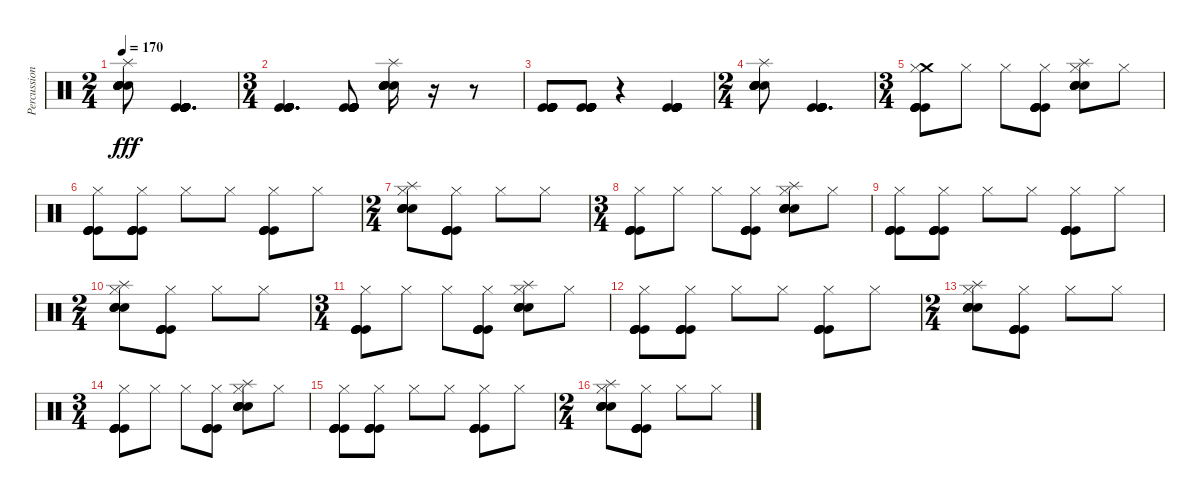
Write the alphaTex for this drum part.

\track ("Percussion" "Percussion") {instrument percussion}
\staff {score}
\articulation defaults
\ts (2 4)
\tempo 170
\clef neutral
\ks c
("Splash (hit)" "Hand Clap (hit)" "Hand Clap (hit)" "Hand Clap (hit)" "Hand Clap (hit)" "Hand Clap (hit)").8{dy fff} ("Kick (hit)" "Kick (hit)" "Kick (hit)" "Kick (hit)" "Kick (hit)" "Kick (hit)").4{d} |
\ts (3 4)
("Kick (hit)" "Kick (hit)" "Kick (hit)" "Kick (hit)" "Kick (hit)" "Kick (hit)").4{d} ("Kick (hit)" "Kick (hit)" "Kick (hit)" "Kick (hit)" "Kick (hit)" "Kick (hit)").8 ("Splash (hit)" "Hand Clap (hit)" "Hand Clap (hit)" "Hand Clap (hit)" "Hand Clap (hit)" "Hand Clap (hit)").16 r.16 r.8 |
("Kick (hit)" "Kick (hit)" "Kick (hit)" "Kick (hit)" "Kick (hit)" "Kick (hit)").8 ("Kick (hit)" "Kick (hit)" "Kick (hit)" "Kick (hit)" "Kick (hit)" "Kick (hit)").8 r.4 ("Kick (hit)" "Kick (hit)" "Kick (hit)" "Kick (hit)" "Kick (hit)" "Kick (hit)").4 |
\ts (2 4)
("Splash (hit)" "Hand Clap (hit)" "Hand Clap (hit)" "Hand Clap (hit)" "Hand Clap (hit)" "Hand Clap (hit)").8 ("Kick (hit)" "Kick (hit)" "Kick (hit)" "Kick (hit)" "Kick (hit)" "Kick (hit)").4{d} |
\ts (3 4)
("Crash medium (hit)" "Hi-Hat (closed)" "Kick (hit)" "Kick (hit)" "Kick (hit)" "Kick (hit)").8 "Hi-Hat (closed)".8 "Hi-Hat (closed)".8 ("Hi-Hat (closed)" "Kick (hit)" "Kick (hit)" "Kick (hit)" "Kick (hit)").8 ("Splash (hit)" "Hi-Hat (closed)" "Hand Clap (hit)" "Hand Clap (hit)" "Hand Clap (hit)" "Hand Clap (hit)").8 "Hi-Hat (closed)".8 |
("Hi-Hat (closed)" "Kick (hit)" "Kick (hit)" "Kick (hit)" "Kick (hit)").8 ("Hi-Hat (closed)" "Kick (hit)" "Kick (hit)" "Kick (hit)" "Kick (hit)").8 "Hi-Hat (closed)".8 "Hi-Hat (closed)".8 ("Hi-Hat (closed)" "Kick (hit)" "Kick (hit)" "Kick (hit)" "Kick (hit)").8 "Hi-Hat (closed)".8 |
\ts (2 4)
("Splash (hit)" "Hi-Hat (closed)" "Hand Clap (hit)" "Hand Clap (hit)" "Hand Clap (hit)" "Hand Clap (hit)").8 ("Hi-Hat (closed)" "Kick (hit)" "Kick (hit)" "Kick (hit)" "Kick (hit)").8 "Hi-Hat (closed)".8 "Hi-Hat (closed)".8 |
\ts (3 4)
("Hi-Hat (closed)" "Kick (hit)" "Kick (hit)" "Kick (hit)" "Kick (hit)").8 "Hi-Hat (closed)".8 "Hi-Hat (closed)".8 ("Hi-Hat (closed)" "Kick (hit)" "Kick (hit)" "Kick (hit)" "Kick (hit)").8 ("Splash (hit)" "Hi-Hat (closed)" "Hand Clap (hit)" "Hand Clap (hit)" "Hand Clap (hit)" "Hand Clap (hit)").8 "Hi-Hat (closed)".8 |
("Hi-Hat (closed)" "Kick (hit)" "Kick (hit)" "Kick (hit)" "Kick (hit)").8 ("Hi-Hat (closed)" "Kick (hit)" "Kick (hit)" "Kick (hit)" "Kick (hit)").8 "Hi-Hat (closed)".8 "Hi-Hat (closed)".8 ("Hi-Hat (closed)" "Kick (hit)" "Kick (hit)" "Kick (hit)" "Kick (hit)").8 "Hi-Hat (closed)".8 |
\ts (2 4)
("Splash (hit)" "Hi-Hat (closed)" "Hand Clap (hit)" "Hand Clap (hit)" "Hand Clap (hit)" "Hand Clap (hit)").8 ("Hi-Hat (closed)" "Kick (hit)" "Kick (hit)" "Kick (hit)" "Kick (hit)").8 "Hi-Hat (closed)".8 "Hi-Hat (closed)".8 |
\ts (3 4)
("Hi-Hat (closed)" "Kick (hit)" "Kick (hit)" "Kick (hit)" "Kick (hit)").8 "Hi-Hat (closed)".8 "Hi-Hat (closed)".8 ("Hi-Hat (closed)" "Kick (hit)" "Kick (hit)" "Kick (hit)" "Kick (hit)").8 ("Splash (hit)" "Hi-Hat (closed)" "Hand Clap (hit)" "Hand Clap (hit)" "Hand Clap (hit)" "Hand Clap (hit)").8 "Hi-Hat (closed)".8 |
("Hi-Hat (closed)" "Kick (hit)" "Kick (hit)" "Kick (hit)" "Kick (hit)").8 ("Hi-Hat (closed)" "Kick (hit)" "Kick (hit)" "Kick (hit)" "Kick (hit)").8 "Hi-Hat (closed)".8 "Hi-Hat (closed)".8 ("Hi-Hat (closed)" "Kick (hit)" "Kick (hit)" "Kick (hit)" "Kick (hit)").8 "Hi-Hat (closed)".8 |
\ts (2 4)
("Splash (hit)" "Hi-Hat (closed)" "Hand Clap (hit)" "Hand Clap (hit)" "Hand Clap (hit)" "Hand Clap (hit)").8 ("Hi-Hat (closed)" "Kick (hit)" "Kick (hit)" "Kick (hit)" "Kick (hit)").8 "Hi-Hat (closed)".8 "Hi-Hat (closed)".8 |
\ts (3 4)
("Hi-Hat (closed)" "Kick (hit)" "Kick (hit)" "Kick (hit)" "Kick (hit)").8 "Hi-Hat (closed)".8 "Hi-Hat (closed)".8 ("Hi-Hat (closed)" "Kick (hit)" "Kick (hit)" "Kick (hit)" "Kick (hit)").8 ("Splash (hit)" "Hi-Hat (closed)" "Hand Clap (hit)" "Hand Clap (hit)" "Hand Clap (hit)" "Hand Clap (hit)").8 "Hi-Hat (closed)".8 |
("Hi-Hat (closed)" "Kick (hit)" "Kick (hit)" "Kick (hit)" "Kick (hit)").8 ("Hi-Hat (closed)" "Kick (hit)" "Kick (hit)" "Kick (hit)" "Kick (hit)").8 "Hi-Hat (closed)".8 "Hi-Hat (closed)".8 ("Hi-Hat (closed)" "Kick (hit)" "Kick (hit)" "Kick (hit)" "Kick (hit)").8 "Hi-Hat (closed)".8 |
\ts (2 4)
("Splash (hit)" "Hi-Hat (closed)" "Hand Clap (hit)" "Hand Clap (hit)" "Hand Clap (hit)" "Hand Clap (hit)").8 ("Hi-Hat (closed)" "Kick (hit)" "Kick (hit)" "Kick (hit)" "Kick (hit)").8 "Hi-Hat (closed)".8 "Hi-Hat (closed)".8
